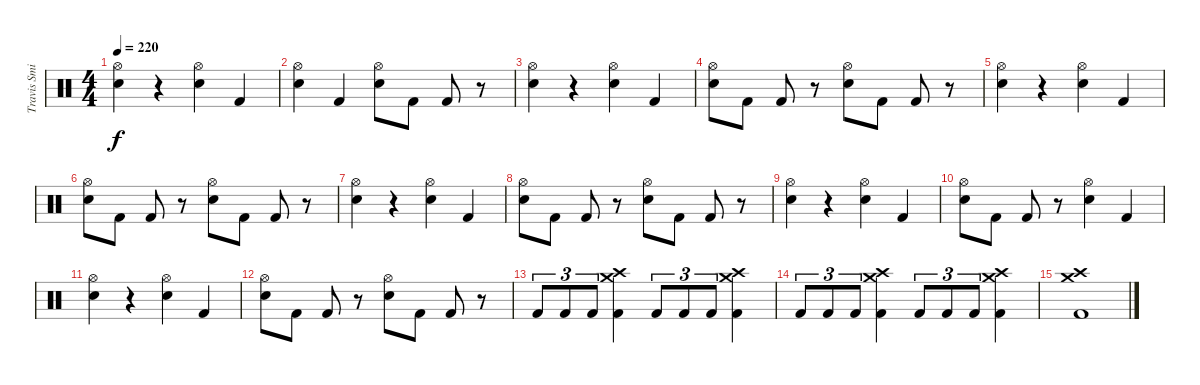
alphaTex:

\track ("Travis Smith" "Travis Smi") {instrument percussion}
\staff {score}
\articulation defaults
\ts (4 4)
\tempo 220
\clef neutral
\ks c
("Hi-Hat (open)" "Electric Snare (hit)").4{dy f} r.4 ("Hi-Hat (open)" "Electric Snare (hit)").4 "Kick (hit) 2".4 |
("Hi-Hat (open)" "Electric Snare (hit)").4 "Kick (hit) 2".4 ("Hi-Hat (open)" "Electric Snare (hit)").8 "Kick (hit) 2".8 "Kick (hit) 2".8 r.8 |
("Hi-Hat (open)" "Electric Snare (hit)").4 r.4 ("Hi-Hat (open)" "Electric Snare (hit)").4 "Kick (hit) 2".4 |
("Hi-Hat (open)" "Electric Snare (hit)").8 "Kick (hit) 2".8 "Kick (hit) 2".8 r.8 ("Hi-Hat (open)" "Electric Snare (hit)").8 "Kick (hit) 2".8 "Kick (hit) 2".8 r.8 |
("Hi-Hat (open)" "Electric Snare (hit)").4 r.4 ("Hi-Hat (open)" "Electric Snare (hit)").4 "Kick (hit) 2".4 |
("Hi-Hat (open)" "Electric Snare (hit)").8 "Kick (hit) 2".8 "Kick (hit) 2".8 r.8 ("Hi-Hat (open)" "Electric Snare (hit)").8 "Kick (hit) 2".8 "Kick (hit) 2".8 r.8 |
("Hi-Hat (open)" "Electric Snare (hit)").4 r.4 ("Hi-Hat (open)" "Electric Snare (hit)").4 "Kick (hit) 2".4 |
("Hi-Hat (open)" "Electric Snare (hit)").8 "Kick (hit) 2".8 "Kick (hit) 2".8 r.8 ("Hi-Hat (open)" "Electric Snare (hit)").8 "Kick (hit) 2".8 "Kick (hit) 2".8 r.8 |
("Hi-Hat (open)" "Electric Snare (hit)").4 r.4 ("Hi-Hat (open)" "Electric Snare (hit)").4 "Kick (hit) 2".4 |
("Hi-Hat (open)" "Electric Snare (hit)").8 "Kick (hit) 2".8 "Kick (hit) 2".8 r.8 ("Hi-Hat (open)" "Electric Snare (hit)").4 "Kick (hit) 2".4 |
("Hi-Hat (open)" "Electric Snare (hit)").4 r.4 ("Hi-Hat (open)" "Electric Snare (hit)").4 "Kick (hit) 2".4 |
("Hi-Hat (open)" "Electric Snare (hit)").8 "Kick (hit) 2".8 "Kick (hit) 2".8 r.8 ("Hi-Hat (open)" "Electric Snare (hit)").8 "Kick (hit) 2".8 "Kick (hit) 2".8 r.8 |
"Kick (hit) 2".8{tu (3 2)} "Kick (hit) 2".8{tu (3 2)} "Kick (hit) 2".8{tu (3 2)} ("Crash high (hit)" "Crash medium (hit)" "Kick (hit) 2").4 "Kick (hit) 2".8{tu (3 2)} "Kick (hit) 2".8{tu (3 2)} "Kick (hit) 2".8{tu (3 2)} ("Crash high (hit)" "Crash medium (hit)" "Kick (hit) 2").4 |
"Kick (hit) 2".8{tu (3 2)} "Kick (hit) 2".8{tu (3 2)} "Kick (hit) 2".8{tu (3 2)} ("Crash high (hit)" "Crash medium (hit)" "Kick (hit) 2").4 "Kick (hit) 2".8{tu (3 2)} "Kick (hit) 2".8{tu (3 2)} "Kick (hit) 2".8{tu (3 2)} ("Crash high (hit)" "Crash medium (hit)" "Kick (hit) 2").4 |
("Crash high (hit)" "Crash medium (hit)" "Kick (hit) 2").1
